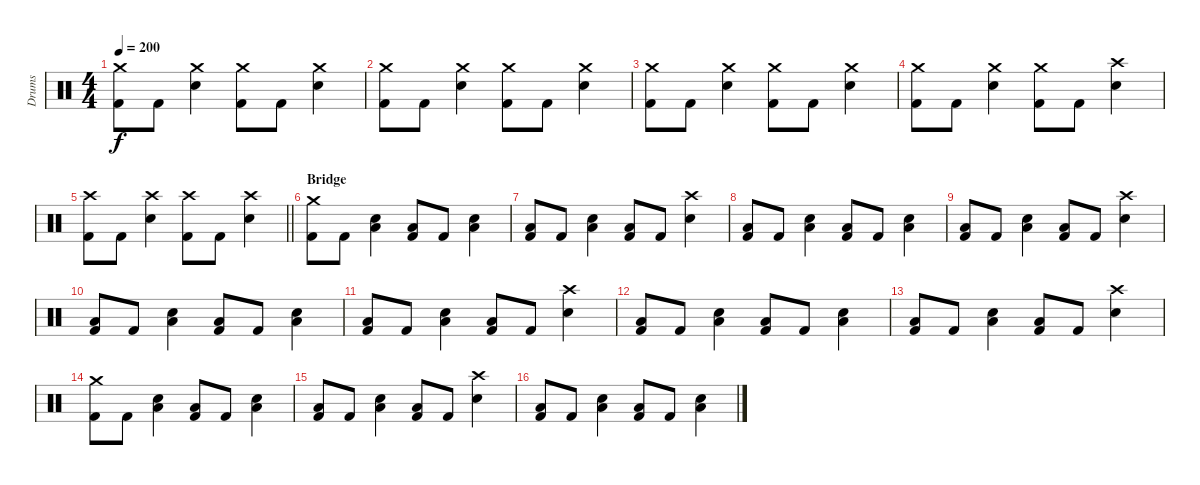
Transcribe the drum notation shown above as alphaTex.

\track ("Drums" "Drums") {instrument percussion}
\staff {score}
\articulation defaults
\ts (4 4)
\tempo 200
\clef neutral
\ks c
("Crash medium (hit)" "Kick (hit) 2").8{dy f} "Kick (hit) 2".8 ("Crash medium (hit)" "Electric Snare (hit)").4 ("Crash medium (hit)" "Kick (hit) 2").8 "Kick (hit) 2".8 ("Crash medium (hit)" "Electric Snare (hit)").4 |
("Crash medium (hit)" "Kick (hit) 2").8 "Kick (hit) 2".8 ("Crash medium (hit)" "Electric Snare (hit)").4 ("Crash medium (hit)" "Kick (hit) 2").8 "Kick (hit) 2".8 ("Crash medium (hit)" "Electric Snare (hit)").4 |
("Crash medium (hit)" "Kick (hit) 2").8 "Kick (hit) 2".8 ("Crash medium (hit)" "Electric Snare (hit)").4 ("Crash medium (hit)" "Kick (hit) 2").8 "Kick (hit) 2".8 ("Crash medium (hit)" "Electric Snare (hit)").4 |
("Crash medium (hit)" "Kick (hit) 2").8 "Kick (hit) 2".8 ("Crash medium (hit)" "Electric Snare (hit)").4 ("Crash medium (hit)" "Kick (hit) 2").8 "Kick (hit) 2".8 ("Crash high (hit)" "Electric Snare (hit)").4 |
\barLineRight lightlight
("Crash high (hit)" "Kick (hit) 2").8 "Kick (hit) 2".8 ("Crash high (hit)" "Electric Snare (hit)").4 ("Crash high (hit)" "Kick (hit) 2").8 "Kick (hit) 2".8 ("Crash high (hit)" "Electric Snare (hit)").4 |
\section ("" "Bridge")
("Crash medium (hit)" "Kick (hit) 2").8 "Kick (hit) 2".8 ("Low Floor Tom (hit)" "Electric Snare (hit)").4 ("Low Floor Tom (hit)" "Kick (hit) 2").8 "Kick (hit) 2".8 ("Low Floor Tom (hit)" "Electric Snare (hit)").4 |
("Low Floor Tom (hit)" "Kick (hit) 2").8 "Kick (hit) 2".8 ("Low Floor Tom (hit)" "Electric Snare (hit)").4 ("Low Floor Tom (hit)" "Kick (hit) 2").8 "Kick (hit) 2".8 ("Crash high (hit)" "Electric Snare (hit)").4 |
("Low Floor Tom (hit)" "Kick (hit) 2").8 "Kick (hit) 2".8 ("Low Floor Tom (hit)" "Electric Snare (hit)").4 ("Low Floor Tom (hit)" "Kick (hit) 2").8 "Kick (hit) 2".8 ("Low Floor Tom (hit)" "Electric Snare (hit)").4 |
("Low Floor Tom (hit)" "Kick (hit) 2").8 "Kick (hit) 2".8 ("Low Floor Tom (hit)" "Electric Snare (hit)").4 ("Low Floor Tom (hit)" "Kick (hit) 2").8 "Kick (hit) 2".8 ("Crash high (hit)" "Electric Snare (hit)").4 |
("Low Floor Tom (hit)" "Kick (hit) 2").8 "Kick (hit) 2".8 ("Low Floor Tom (hit)" "Electric Snare (hit)").4 ("Low Floor Tom (hit)" "Kick (hit) 2").8 "Kick (hit) 2".8 ("Low Floor Tom (hit)" "Electric Snare (hit)").4 |
("Low Floor Tom (hit)" "Kick (hit) 2").8 "Kick (hit) 2".8 ("Low Floor Tom (hit)" "Electric Snare (hit)").4 ("Low Floor Tom (hit)" "Kick (hit) 2").8 "Kick (hit) 2".8 ("Crash high (hit)" "Electric Snare (hit)").4 |
("Low Floor Tom (hit)" "Kick (hit) 2").8 "Kick (hit) 2".8 ("Low Floor Tom (hit)" "Electric Snare (hit)").4 ("Low Floor Tom (hit)" "Kick (hit) 2").8 "Kick (hit) 2".8 ("Low Floor Tom (hit)" "Electric Snare (hit)").4 |
("Low Floor Tom (hit)" "Kick (hit) 2").8 "Kick (hit) 2".8 ("Low Floor Tom (hit)" "Electric Snare (hit)").4 ("Low Floor Tom (hit)" "Kick (hit) 2").8 "Kick (hit) 2".8 ("Crash high (hit)" "Electric Snare (hit)").4 |
("Crash medium (hit)" "Kick (hit) 2").8 "Kick (hit) 2".8 ("Low Floor Tom (hit)" "Electric Snare (hit)").4 ("Low Floor Tom (hit)" "Kick (hit) 2").8 "Kick (hit) 2".8 ("Low Floor Tom (hit)" "Electric Snare (hit)").4 |
("Low Floor Tom (hit)" "Kick (hit) 2").8 "Kick (hit) 2".8 ("Low Floor Tom (hit)" "Electric Snare (hit)").4 ("Low Floor Tom (hit)" "Kick (hit) 2").8 "Kick (hit) 2".8 ("Crash high (hit)" "Electric Snare (hit)").4 |
("Low Floor Tom (hit)" "Kick (hit) 2").8 "Kick (hit) 2".8 ("Low Floor Tom (hit)" "Electric Snare (hit)").4 ("Low Floor Tom (hit)" "Kick (hit) 2").8 "Kick (hit) 2".8 ("Low Floor Tom (hit)" "Electric Snare (hit)").4
